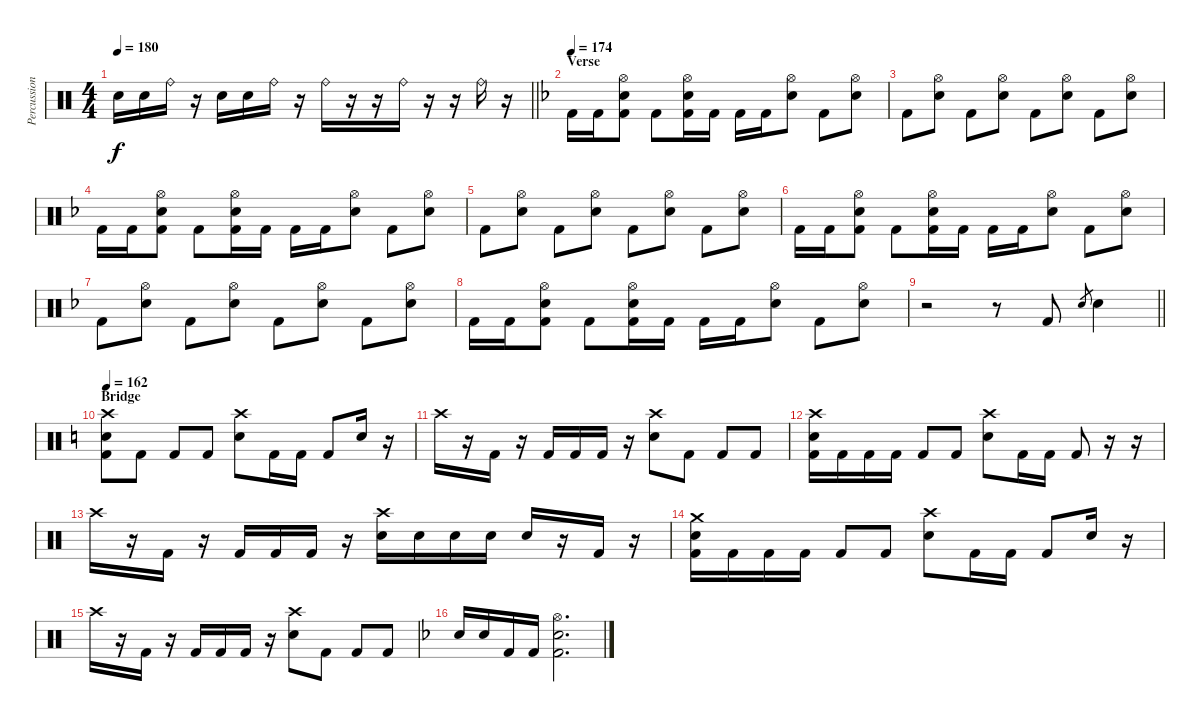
\track ("Percussion" "Percussion") {instrument percussion}
\staff {score}
\articulation defaults
\ts (4 4)
\tempo 180
\clef neutral
\barLineRight lightlight
\ks c "Electric Snare (hit)".16{dy f} "Electric Snare (hit)".16 "Ride (bell)".16
r.16 "Electric Snare (hit)".16 "Electric Snare (hit)".16 "Ride (bell)".16 r.16 "Ride (bell)".16 r.16 r.16 "Ride (bell)".16 r.16 r.16 "Ride (bell)".16 r.16 |
\section ("" "Verse")
\tempo 174
\ks f "Kick (hit) 2".16 "Kick (hit) 2".16
("Hi-Hat (open)" "Electric Snare (hit)" "Kick (hit) 2").8 "Kick (hit) 2".8 ("Hi-Hat (open)" "Electric Snare (hit)" "Kick (hit) 2").16 "Kick (hit) 2".16 "Kick (hit) 2".16 "Kick (hit) 2".16 ("Hi-Hat (open)" "Electric Snare (hit)").8 "Kick (hit) 2".8 ("Hi-Hat (open)" "Electric Snare (hit)").8 |
"Kick (hit) 2".8 ("Hi-Hat (open)" "Electric Snare (hit)").8 "Kick (hit) 2".8 ("Hi-Hat (open)" "Electric Snare (hit)").8 "Kick (hit) 2".8 ("Hi-Hat (open)" "Electric Snare (hit)").8 "Kick (hit) 2".8 ("Hi-Hat (open)" "Electric Snare (hit)").8 |
"Kick (hit) 2".16 "Kick (hit) 2".16 ("Hi-Hat (open)" "Electric Snare (hit)" "Kick (hit) 2").8 "Kick (hit) 2".8 ("Hi-Hat (open)" "Electric Snare (hit)" "Kick (hit) 2").16 "Kick (hit) 2".16 "Kick (hit) 2".16 "Kick (hit) 2".16 ("Hi-Hat (open)" "Electric Snare (hit)").8 "Kick (hit) 2".8 ("Hi-Hat (open)" "Electric Snare (hit)").8 |
"Kick (hit) 2".8 ("Hi-Hat (open)" "Electric Snare (hit)").8 "Kick (hit) 2".8 ("Hi-Hat (open)" "Electric Snare (hit)").8 "Kick (hit) 2".8 ("Hi-Hat (open)" "Electric Snare (hit)").8 "Kick (hit) 2".8 ("Hi-Hat (open)" "Electric Snare (hit)").8 |
"Kick (hit) 2".16 "Kick (hit) 2".16 ("Hi-Hat (open)" "Electric Snare (hit)" "Kick (hit) 2").8 "Kick (hit) 2".8 ("Hi-Hat (open)" "Electric Snare (hit)" "Kick (hit) 2").16 "Kick (hit) 2".16 "Kick (hit) 2".16 "Kick (hit) 2".16 ("Hi-Hat (open)" "Electric Snare (hit)").8 "Kick (hit) 2".8 ("Hi-Hat (open)" "Electric Snare (hit)").8 |
"Kick (hit) 2".8 ("Hi-Hat (open)" "Electric Snare (hit)").8 "Kick (hit) 2".8 ("Hi-Hat (open)" "Electric Snare (hit)").8 "Kick (hit) 2".8 ("Hi-Hat (open)" "Electric Snare (hit)").8 "Kick (hit) 2".8 ("Hi-Hat (open)" "Electric Snare (hit)").8 |
"Kick (hit) 2".16 "Kick (hit) 2".16 ("Hi-Hat (open)" "Electric Snare (hit)" "Kick (hit) 2").8 "Kick (hit) 2".8 ("Hi-Hat (open)" "Electric Snare (hit)" "Kick (hit) 2").16 "Kick (hit) 2".16 "Kick (hit) 2".16 "Kick (hit) 2".16 ("Hi-Hat (open)" "Electric Snare (hit)").8 "Kick (hit) 2".8 ("Hi-Hat (open)" "Electric Snare (hit)").8 |
\barLineRight lightlight
r.2 r.8 "Kick (hit) 2".8 "Electric Snare (hit)".8{gr} "Electric Snare (hit)".4 |
\section ("" "Bridge")
\tempo 162
\ks c
("Crash high (hit)" "Electric Snare (hit)" "Kick (hit) 2").8 "Kick (hit) 2".8 "Kick (hit) 2".8 "Kick (hit) 2".8 ("Crash high (hit)" "Electric Snare (hit)").8 "Kick (hit) 2".16 "Kick (hit) 2".16 "Kick (hit) 2".8 "Electric Snare (hit)".16 r.16 |
"Crash high (hit)".16 r.16 "Kick (hit) 2".16 r.16 "Kick (hit) 2".16 "Kick (hit) 2".16 "Kick (hit) 2".16 r.16 ("Crash high (hit)" "Electric Snare (hit)").8 "Kick (hit) 2".8 "Kick (hit) 2".8 "Kick (hit) 2".8 |
("Crash high (hit)" "Electric Snare (hit)" "Kick (hit) 2").16 "Kick (hit) 2".16 "Kick (hit) 2".16 "Kick (hit) 2".16 "Kick (hit) 2".8 "Kick (hit) 2".8 ("Crash high (hit)" "Electric Snare (hit)").8 "Kick (hit) 2".16 "Kick (hit) 2".16 "Kick (hit) 2".8 r.16 r.16 |
"Crash high (hit)".16 r.16 "Kick (hit) 2".16 r.16 "Kick (hit) 2".16 "Kick (hit) 2".16 "Kick (hit) 2".16 r.16 ("Crash high (hit)" "Electric Snare (hit)").16 "Electric Snare (hit)".16 "Electric Snare (hit)".16 "Electric Snare (hit)".16 "Electric Snare (hit)".16 r.16 "Kick (hit) 2".16 r.16 |
("Crash medium (hit)" "Electric Snare (hit)" "Kick (hit) 2").16 "Kick (hit) 2".16 "Kick (hit) 2".16 "Kick (hit) 2".16 "Kick (hit) 2".8 "Kick (hit) 2".8 ("Crash high (hit)" "Electric Snare (hit)").8 "Kick (hit) 2".16 "Kick (hit) 2".16 "Kick (hit) 2".8 "Electric Snare (hit)".16 r.16 |
"Crash high (hit)".16 r.16 "Kick (hit) 2".16 r.16 "Kick (hit) 2".16 "Kick (hit) 2".16 "Kick (hit) 2".16 r.16 ("Crash high (hit)" "Electric Snare (hit)").8 "Kick (hit) 2".8 "Kick (hit) 2".8 "Kick (hit) 2".8 |
\ks f "Electric Snare (hit)".16 "Electric Snare (hit)".16 "Kick (hit) 2".16 "Kick (hit) 2".16
("Hi-Hat (open)" "Electric Snare (hit)" "Kick (hit) 2").2{d}
